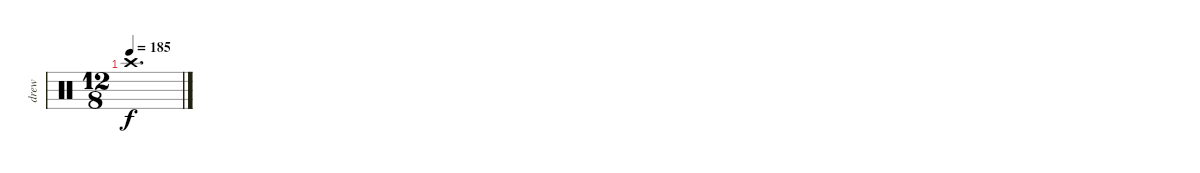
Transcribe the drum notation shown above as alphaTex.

\track ("drew" "drew") {instrument percussion}
\staff {score}
\articulation defaults
\ts (12 8)
\tempo 185
\clef neutral
\ks c "Crash high (hit)".1{d dy f}
